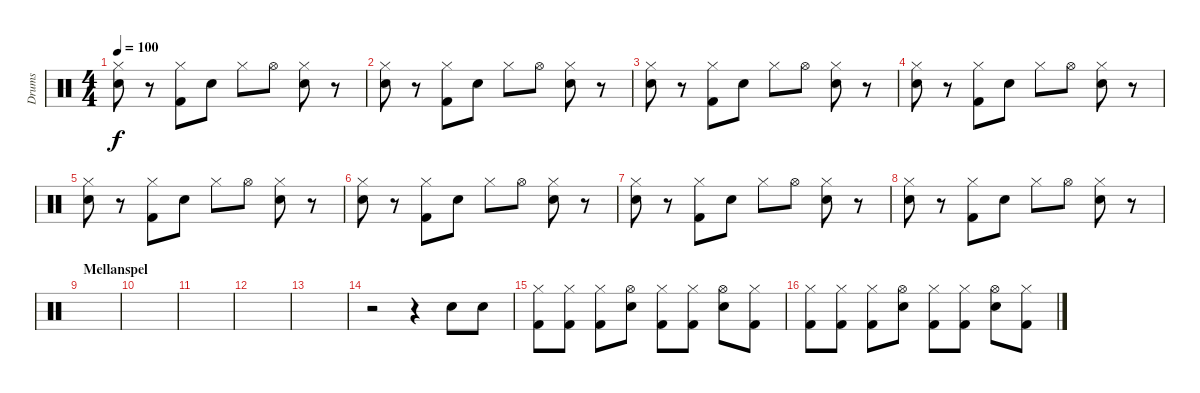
\track ("Drums" "Drums") {instrument percussion}
\staff {score}
\articulation defaults
\ts (4 4)
\tempo 100
\clef neutral
\ks c
("Hi-Hat (closed)" "Snare (hit) 2").8{dy f} r.8 ("Hi-Hat (closed)" "Kick (hit) 2").8 "Snare (hit) 2".8 "Hi-Hat (closed)".8 "Hi-Hat (open)".8 ("Hi-Hat (closed)" "Snare (hit) 2").8 r.8 |
("Hi-Hat (closed)" "Snare (hit) 2").8 r.8 ("Hi-Hat (closed)" "Kick (hit) 2").8 "Snare (hit) 2".8 "Hi-Hat (closed)".8 "Hi-Hat (open)".8 ("Hi-Hat (closed)" "Snare (hit) 2").8 r.8 |
("Hi-Hat (closed)" "Snare (hit) 2").8 r.8 ("Hi-Hat (closed)" "Kick (hit) 2").8 "Snare (hit) 2".8 "Hi-Hat (closed)".8 "Hi-Hat (open)".8 ("Hi-Hat (closed)" "Snare (hit) 2").8 r.8 |
("Hi-Hat (closed)" "Snare (hit) 2").8 r.8 ("Hi-Hat (closed)" "Kick (hit) 2").8 "Snare (hit) 2".8 "Hi-Hat (closed)".8 "Hi-Hat (open)".8 ("Hi-Hat (closed)" "Snare (hit) 2").8 r.8 |
("Hi-Hat (closed)" "Snare (hit) 2").8 r.8 ("Hi-Hat (closed)" "Kick (hit) 2").8 "Snare (hit) 2".8 "Hi-Hat (closed)".8 "Hi-Hat (open)".8 ("Hi-Hat (closed)" "Snare (hit) 2").8 r.8 |
("Hi-Hat (closed)" "Snare (hit) 2").8 r.8 ("Hi-Hat (closed)" "Kick (hit) 2").8 "Snare (hit) 2".8 "Hi-Hat (closed)".8 "Hi-Hat (open)".8 ("Hi-Hat (closed)" "Snare (hit) 2").8 r.8 |
("Hi-Hat (closed)" "Snare (hit) 2").8 r.8 ("Hi-Hat (closed)" "Kick (hit) 2").8 "Snare (hit) 2".8 "Hi-Hat (closed)".8 "Hi-Hat (open)".8 ("Hi-Hat (closed)" "Snare (hit) 2").8 r.8 |
("Hi-Hat (closed)" "Snare (hit) 2").8 r.8 ("Hi-Hat (closed)" "Kick (hit) 2").8 "Snare (hit) 2".8 "Hi-Hat (closed)".8 "Hi-Hat (open)".8 ("Hi-Hat (closed)" "Snare (hit) 2").8 r.8 |
\section ("" "Mellanspel")
|
|
|
|
|
r.2 r.4 "Snare (hit) 2".8 "Snare (hit) 2".8 |
("Hi-Hat (closed)" "Kick (hit) 2").8 ("Hi-Hat (closed)" "Kick (hit) 2").8 ("Hi-Hat (closed)" "Kick (hit) 2").8 ("Hi-Hat (open)" "Snare (hit) 2").8 ("Hi-Hat (closed)" "Kick (hit) 2").8 ("Hi-Hat (closed)" "Kick (hit) 2").8 ("Hi-Hat (open)" "Snare (hit) 2").8 ("Hi-Hat (closed)" "Kick (hit) 2").8 |
("Hi-Hat (closed)" "Kick (hit) 2").8 ("Hi-Hat (closed)" "Kick (hit) 2").8 ("Hi-Hat (closed)" "Kick (hit) 2").8 ("Hi-Hat (open)" "Snare (hit) 2").8 ("Hi-Hat (closed)" "Kick (hit) 2").8 ("Hi-Hat (closed)" "Kick (hit) 2").8 ("Hi-Hat (open)" "Snare (hit) 2").8 ("Hi-Hat (closed)" "Kick (hit) 2").8
